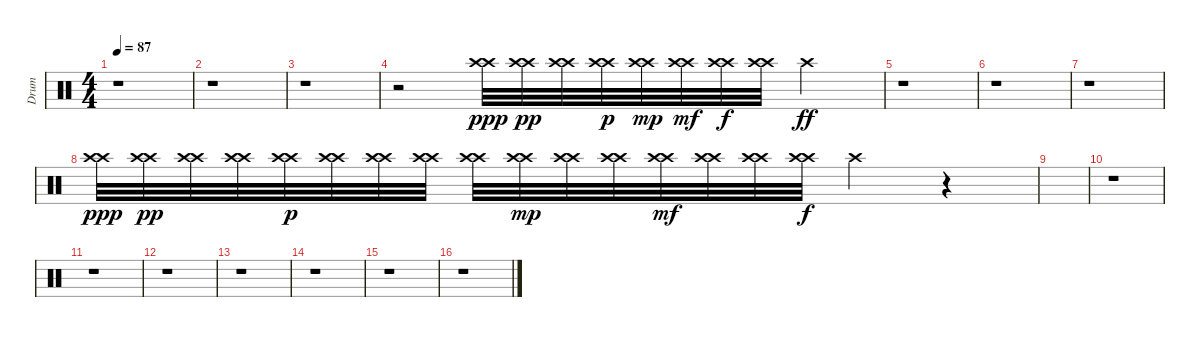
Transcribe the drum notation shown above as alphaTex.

\track ("Drum" "Drum") {instrument percussion}
\staff {score}
\articulation defaults
\ts (4 4)
\tempo 87
\clef neutral
\ks c
r.1{dy ppp} |
r.1 |
r.1 |
r.2 ("Crash high (hit)" "Crash high (hit)").32 ("Crash high (hit)" "Crash high (hit)").32{dy pp} ("Crash high (hit)" "Crash high (hit)").32 ("Crash high (hit)" "Crash high (hit)").32{dy p} ("Crash high (hit)" "Crash high (hit)").32{dy mp} ("Crash high (hit)" "Crash high (hit)").32{dy mf} ("Crash high (hit)" "Crash high (hit)").32{dy f} ("Crash high (hit)" "Crash high (hit)").32 "Crash high (hit)".4{dy ff} |
r.1 |
r.1 |
r.1 |
("Crash high (hit)" "Crash high (hit)").32{dy ppp} ("Crash high (hit)" "Crash high (hit)").32{dy pp} ("Crash high (hit)" "Crash high (hit)").32 ("Crash high (hit)" "Crash high (hit)").32 ("Crash high (hit)" "Crash high (hit)").32{dy p} ("Crash high (hit)" "Crash high (hit)").32 ("Crash high (hit)" "Crash high (hit)").32 ("Crash high (hit)" "Crash high (hit)").32 ("Crash high (hit)" "Crash high (hit)").32 ("Crash high (hit)" "Crash high (hit)").32{dy mp} ("Crash high (hit)" "Crash high (hit)").32 ("Crash high (hit)" "Crash high (hit)").32 ("Crash high (hit)" "Crash high (hit)").32{dy mf} ("Crash high (hit)" "Crash high (hit)").32 ("Crash high (hit)" "Crash high (hit)").32 ("Crash high (hit)" "Crash high (hit)").32{dy f} "Crash high (hit)".4 r.4 |
|
r.1 |
r.1 |
r.1 |
r.1 |
r.1 |
r.1 |
r.1
